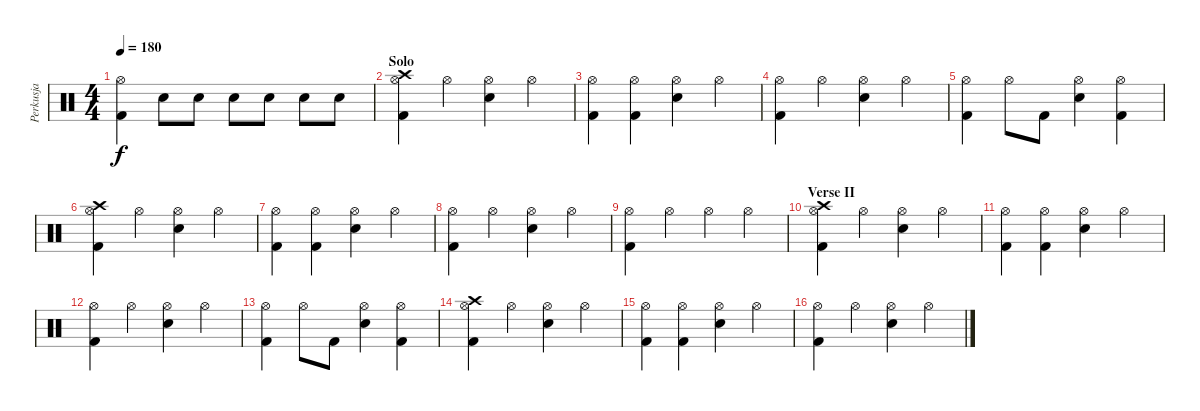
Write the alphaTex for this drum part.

\track ("Perkusja" "Perkusja") {instrument percussion}
\staff {score}
\articulation defaults
\ts (4 4)
\tempo 180
\clef neutral
\ks c
("Hi-Hat (open)" "Kick (hit) 2").4{dy f} "Snare (hit) 2".8 "Snare (hit) 2".8 "Snare (hit) 2".8 "Snare (hit) 2".8 "Snare (hit) 2".8 "Snare (hit) 2".8 |
\section ("" "Solo")
("Hi-Hat (open)" "Kick (hit) 2" "Crash high (hit)").4 "Hi-Hat (open)".4 ("Hi-Hat (open)" "Snare (hit) 2").4 "Hi-Hat (open)".4 |
("Hi-Hat (open)" "Kick (hit) 2").4 ("Hi-Hat (open)" "Kick (hit) 2").4 ("Hi-Hat (open)" "Snare (hit) 2").4 "Hi-Hat (open)".4 |
("Hi-Hat (open)" "Kick (hit) 2").4 "Hi-Hat (open)".4 ("Hi-Hat (open)" "Snare (hit) 2").4 "Hi-Hat (open)".4 |
("Hi-Hat (open)" "Kick (hit) 2").4 "Hi-Hat (open)".8 "Kick (hit) 2".8 ("Hi-Hat (open)" "Snare (hit) 2").4 ("Hi-Hat (open)" "Kick (hit) 2").4 |
("Hi-Hat (open)" "Kick (hit) 2" "Crash high (hit)").4 "Hi-Hat (open)".4 ("Hi-Hat (open)" "Snare (hit) 2").4 "Hi-Hat (open)".4 |
("Hi-Hat (open)" "Kick (hit) 2").4 ("Hi-Hat (open)" "Kick (hit) 2").4 ("Hi-Hat (open)" "Snare (hit) 2").4 "Hi-Hat (open)".4 |
("Hi-Hat (open)" "Kick (hit) 2").4 "Hi-Hat (open)".4 ("Hi-Hat (open)" "Snare (hit) 2").4 "Hi-Hat (open)".4 |
("Hi-Hat (open)" "Kick (hit) 2").4 "Hi-Hat (open)".4 "Hi-Hat (open)".4 "Hi-Hat (open)".4 |
\section ("" "Verse II")
("Hi-Hat (open)" "Kick (hit) 2" "Crash high (hit)").4 "Hi-Hat (open)".4 ("Hi-Hat (open)" "Snare (hit) 2").4 "Hi-Hat (open)".4 |
("Hi-Hat (open)" "Kick (hit) 2").4 ("Hi-Hat (open)" "Kick (hit) 2").4 ("Hi-Hat (open)" "Snare (hit) 2").4 "Hi-Hat (open)".4 |
("Hi-Hat (open)" "Kick (hit) 2").4 "Hi-Hat (open)".4 ("Hi-Hat (open)" "Snare (hit) 2").4 "Hi-Hat (open)".4 |
("Hi-Hat (open)" "Kick (hit) 2").4 "Hi-Hat (open)".8 "Kick (hit) 2".8 ("Hi-Hat (open)" "Snare (hit) 2").4 ("Hi-Hat (open)" "Kick (hit) 2").4 |
("Hi-Hat (open)" "Kick (hit) 2" "Crash high (hit)").4 "Hi-Hat (open)".4 ("Hi-Hat (open)" "Snare (hit) 2").4 "Hi-Hat (open)".4 |
("Hi-Hat (open)" "Kick (hit) 2").4 ("Hi-Hat (open)" "Kick (hit) 2").4 ("Hi-Hat (open)" "Snare (hit) 2").4 "Hi-Hat (open)".4 |
("Hi-Hat (open)" "Kick (hit) 2").4 "Hi-Hat (open)".4 ("Hi-Hat (open)" "Snare (hit) 2").4 "Hi-Hat (open)".4
